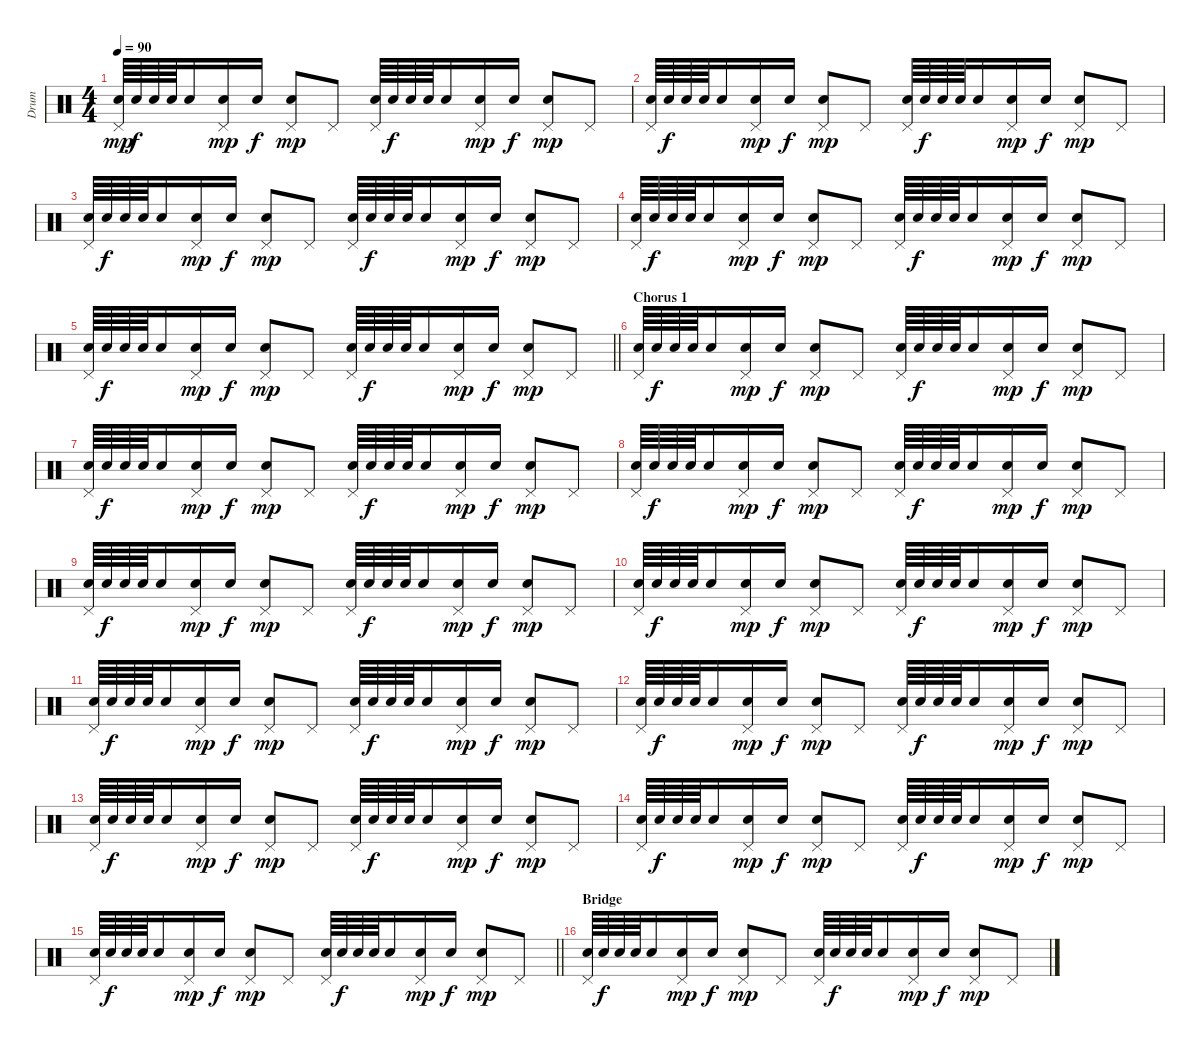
\track ("Drum" "Drum") {instrument percussion}
\staff {score}
\articulation defaults
\ts (4 4)
\tempo 90
\clef neutral
\ks c
("Snare (hit) 2" "Pedal Hi-Hat (hit)").64{dy mp} "Snare (hit) 2".64{dy f} "Snare (hit) 2".64 "Snare (hit) 2".64 "Snare (hit) 2".16 ("Snare (hit) 2" "Pedal Hi-Hat (hit)").16{dy mp} "Snare (hit) 2".16{dy f} ("Snare (hit) 2" "Pedal Hi-Hat (hit)").8{dy mp} "Pedal Hi-Hat (hit)".8 ("Snare (hit) 2" "Pedal Hi-Hat (hit)").64 "Snare (hit) 2".64{dy f} "Snare (hit) 2".64 "Snare (hit) 2".64 "Snare (hit) 2".16 ("Snare (hit) 2" "Pedal Hi-Hat (hit)").16{dy mp} "Snare (hit) 2".16{dy f} ("Snare (hit) 2" "Pedal Hi-Hat (hit)").8{dy mp} "Pedal Hi-Hat (hit)".8 |
("Snare (hit) 2" "Pedal Hi-Hat (hit)").64 "Snare (hit) 2".64{dy f} "Snare (hit) 2".64 "Snare (hit) 2".64 "Snare (hit) 2".16 ("Snare (hit) 2" "Pedal Hi-Hat (hit)").16{dy mp} "Snare (hit) 2".16{dy f} ("Snare (hit) 2" "Pedal Hi-Hat (hit)").8{dy mp} "Pedal Hi-Hat (hit)".8 ("Snare (hit) 2" "Pedal Hi-Hat (hit)").64 "Snare (hit) 2".64{dy f} "Snare (hit) 2".64 "Snare (hit) 2".64 "Snare (hit) 2".16 ("Snare (hit) 2" "Pedal Hi-Hat (hit)").16{dy mp} "Snare (hit) 2".16{dy f} ("Snare (hit) 2" "Pedal Hi-Hat (hit)").8{dy mp} "Pedal Hi-Hat (hit)".8 |
("Snare (hit) 2" "Pedal Hi-Hat (hit)").64 "Snare (hit) 2".64{dy f} "Snare (hit) 2".64 "Snare (hit) 2".64 "Snare (hit) 2".16 ("Snare (hit) 2" "Pedal Hi-Hat (hit)").16{dy mp} "Snare (hit) 2".16{dy f} ("Snare (hit) 2" "Pedal Hi-Hat (hit)").8{dy mp} "Pedal Hi-Hat (hit)".8 ("Snare (hit) 2" "Pedal Hi-Hat (hit)").64 "Snare (hit) 2".64{dy f} "Snare (hit) 2".64 "Snare (hit) 2".64 "Snare (hit) 2".16 ("Snare (hit) 2" "Pedal Hi-Hat (hit)").16{dy mp} "Snare (hit) 2".16{dy f} ("Snare (hit) 2" "Pedal Hi-Hat (hit)").8{dy mp} "Pedal Hi-Hat (hit)".8 |
("Snare (hit) 2" "Pedal Hi-Hat (hit)").64 "Snare (hit) 2".64{dy f} "Snare (hit) 2".64 "Snare (hit) 2".64 "Snare (hit) 2".16 ("Snare (hit) 2" "Pedal Hi-Hat (hit)").16{dy mp} "Snare (hit) 2".16{dy f} ("Snare (hit) 2" "Pedal Hi-Hat (hit)").8{dy mp} "Pedal Hi-Hat (hit)".8 ("Snare (hit) 2" "Pedal Hi-Hat (hit)").64 "Snare (hit) 2".64{dy f} "Snare (hit) 2".64 "Snare (hit) 2".64 "Snare (hit) 2".16 ("Snare (hit) 2" "Pedal Hi-Hat (hit)").16{dy mp} "Snare (hit) 2".16{dy f} ("Snare (hit) 2" "Pedal Hi-Hat (hit)").8{dy mp} "Pedal Hi-Hat (hit)".8 |
\barLineRight lightlight
("Snare (hit) 2" "Pedal Hi-Hat (hit)").64 "Snare (hit) 2".64{dy f} "Snare (hit) 2".64 "Snare (hit) 2".64 "Snare (hit) 2".16 ("Snare (hit) 2" "Pedal Hi-Hat (hit)").16{dy mp} "Snare (hit) 2".16{dy f} ("Snare (hit) 2" "Pedal Hi-Hat (hit)").8{dy mp} "Pedal Hi-Hat (hit)".8 ("Snare (hit) 2" "Pedal Hi-Hat (hit)").64 "Snare (hit) 2".64{dy f} "Snare (hit) 2".64 "Snare (hit) 2".64 "Snare (hit) 2".16 ("Snare (hit) 2" "Pedal Hi-Hat (hit)").16{dy mp} "Snare (hit) 2".16{dy f} ("Snare (hit) 2" "Pedal Hi-Hat (hit)").8{dy mp} "Pedal Hi-Hat (hit)".8 |
\section ("" "Chorus 1")
("Snare (hit) 2" "Pedal Hi-Hat (hit)").64 "Snare (hit) 2".64{dy f} "Snare (hit) 2".64 "Snare (hit) 2".64 "Snare (hit) 2".16 ("Snare (hit) 2" "Pedal Hi-Hat (hit)").16{dy mp} "Snare (hit) 2".16{dy f} ("Snare (hit) 2" "Pedal Hi-Hat (hit)").8{dy mp} "Pedal Hi-Hat (hit)".8 ("Snare (hit) 2" "Pedal Hi-Hat (hit)").64 "Snare (hit) 2".64{dy f} "Snare (hit) 2".64 "Snare (hit) 2".64 "Snare (hit) 2".16 ("Snare (hit) 2" "Pedal Hi-Hat (hit)").16{dy mp} "Snare (hit) 2".16{dy f} ("Snare (hit) 2" "Pedal Hi-Hat (hit)").8{dy mp} "Pedal Hi-Hat (hit)".8 |
("Snare (hit) 2" "Pedal Hi-Hat (hit)").64 "Snare (hit) 2".64{dy f} "Snare (hit) 2".64 "Snare (hit) 2".64 "Snare (hit) 2".16 ("Snare (hit) 2" "Pedal Hi-Hat (hit)").16{dy mp} "Snare (hit) 2".16{dy f} ("Snare (hit) 2" "Pedal Hi-Hat (hit)").8{dy mp} "Pedal Hi-Hat (hit)".8 ("Snare (hit) 2" "Pedal Hi-Hat (hit)").64 "Snare (hit) 2".64{dy f} "Snare (hit) 2".64 "Snare (hit) 2".64 "Snare (hit) 2".16 ("Snare (hit) 2" "Pedal Hi-Hat (hit)").16{dy mp} "Snare (hit) 2".16{dy f} ("Snare (hit) 2" "Pedal Hi-Hat (hit)").8{dy mp} "Pedal Hi-Hat (hit)".8 |
("Snare (hit) 2" "Pedal Hi-Hat (hit)").64 "Snare (hit) 2".64{dy f} "Snare (hit) 2".64 "Snare (hit) 2".64 "Snare (hit) 2".16 ("Snare (hit) 2" "Pedal Hi-Hat (hit)").16{dy mp} "Snare (hit) 2".16{dy f} ("Snare (hit) 2" "Pedal Hi-Hat (hit)").8{dy mp} "Pedal Hi-Hat (hit)".8 ("Snare (hit) 2" "Pedal Hi-Hat (hit)").64 "Snare (hit) 2".64{dy f} "Snare (hit) 2".64 "Snare (hit) 2".64 "Snare (hit) 2".16 ("Snare (hit) 2" "Pedal Hi-Hat (hit)").16{dy mp} "Snare (hit) 2".16{dy f} ("Snare (hit) 2" "Pedal Hi-Hat (hit)").8{dy mp} "Pedal Hi-Hat (hit)".8 |
("Snare (hit) 2" "Pedal Hi-Hat (hit)").64 "Snare (hit) 2".64{dy f} "Snare (hit) 2".64 "Snare (hit) 2".64 "Snare (hit) 2".16 ("Snare (hit) 2" "Pedal Hi-Hat (hit)").16{dy mp} "Snare (hit) 2".16{dy f} ("Snare (hit) 2" "Pedal Hi-Hat (hit)").8{dy mp} "Pedal Hi-Hat (hit)".8 ("Snare (hit) 2" "Pedal Hi-Hat (hit)").64 "Snare (hit) 2".64{dy f} "Snare (hit) 2".64 "Snare (hit) 2".64 "Snare (hit) 2".16 ("Snare (hit) 2" "Pedal Hi-Hat (hit)").16{dy mp} "Snare (hit) 2".16{dy f} ("Snare (hit) 2" "Pedal Hi-Hat (hit)").8{dy mp} "Pedal Hi-Hat (hit)".8 |
("Snare (hit) 2" "Pedal Hi-Hat (hit)").64 "Snare (hit) 2".64{dy f} "Snare (hit) 2".64 "Snare (hit) 2".64 "Snare (hit) 2".16 ("Snare (hit) 2" "Pedal Hi-Hat (hit)").16{dy mp} "Snare (hit) 2".16{dy f} ("Snare (hit) 2" "Pedal Hi-Hat (hit)").8{dy mp} "Pedal Hi-Hat (hit)".8 ("Snare (hit) 2" "Pedal Hi-Hat (hit)").64 "Snare (hit) 2".64{dy f} "Snare (hit) 2".64 "Snare (hit) 2".64 "Snare (hit) 2".16 ("Snare (hit) 2" "Pedal Hi-Hat (hit)").16{dy mp} "Snare (hit) 2".16{dy f} ("Snare (hit) 2" "Pedal Hi-Hat (hit)").8{dy mp} "Pedal Hi-Hat (hit)".8 |
("Snare (hit) 2" "Pedal Hi-Hat (hit)").64 "Snare (hit) 2".64{dy f} "Snare (hit) 2".64 "Snare (hit) 2".64 "Snare (hit) 2".16 ("Snare (hit) 2" "Pedal Hi-Hat (hit)").16{dy mp} "Snare (hit) 2".16{dy f} ("Snare (hit) 2" "Pedal Hi-Hat (hit)").8{dy mp} "Pedal Hi-Hat (hit)".8 ("Snare (hit) 2" "Pedal Hi-Hat (hit)").64 "Snare (hit) 2".64{dy f} "Snare (hit) 2".64 "Snare (hit) 2".64 "Snare (hit) 2".16 ("Snare (hit) 2" "Pedal Hi-Hat (hit)").16{dy mp} "Snare (hit) 2".16{dy f} ("Snare (hit) 2" "Pedal Hi-Hat (hit)").8{dy mp} "Pedal Hi-Hat (hit)".8 |
("Snare (hit) 2" "Pedal Hi-Hat (hit)").64 "Snare (hit) 2".64{dy f} "Snare (hit) 2".64 "Snare (hit) 2".64 "Snare (hit) 2".16 ("Snare (hit) 2" "Pedal Hi-Hat (hit)").16{dy mp} "Snare (hit) 2".16{dy f} ("Snare (hit) 2" "Pedal Hi-Hat (hit)").8{dy mp} "Pedal Hi-Hat (hit)".8 ("Snare (hit) 2" "Pedal Hi-Hat (hit)").64 "Snare (hit) 2".64{dy f} "Snare (hit) 2".64 "Snare (hit) 2".64 "Snare (hit) 2".16 ("Snare (hit) 2" "Pedal Hi-Hat (hit)").16{dy mp} "Snare (hit) 2".16{dy f} ("Snare (hit) 2" "Pedal Hi-Hat (hit)").8{dy mp} "Pedal Hi-Hat (hit)".8 |
("Snare (hit) 2" "Pedal Hi-Hat (hit)").64 "Snare (hit) 2".64{dy f} "Snare (hit) 2".64 "Snare (hit) 2".64 "Snare (hit) 2".16 ("Snare (hit) 2" "Pedal Hi-Hat (hit)").16{dy mp} "Snare (hit) 2".16{dy f} ("Snare (hit) 2" "Pedal Hi-Hat (hit)").8{dy mp} "Pedal Hi-Hat (hit)".8 ("Snare (hit) 2" "Pedal Hi-Hat (hit)").64 "Snare (hit) 2".64{dy f} "Snare (hit) 2".64 "Snare (hit) 2".64 "Snare (hit) 2".16 ("Snare (hit) 2" "Pedal Hi-Hat (hit)").16{dy mp} "Snare (hit) 2".16{dy f} ("Snare (hit) 2" "Pedal Hi-Hat (hit)").8{dy mp} "Pedal Hi-Hat (hit)".8 |
("Snare (hit) 2" "Pedal Hi-Hat (hit)").64 "Snare (hit) 2".64{dy f} "Snare (hit) 2".64 "Snare (hit) 2".64 "Snare (hit) 2".16 ("Snare (hit) 2" "Pedal Hi-Hat (hit)").16{dy mp} "Snare (hit) 2".16{dy f} ("Snare (hit) 2" "Pedal Hi-Hat (hit)").8{dy mp} "Pedal Hi-Hat (hit)".8 ("Snare (hit) 2" "Pedal Hi-Hat (hit)").64 "Snare (hit) 2".64{dy f} "Snare (hit) 2".64 "Snare (hit) 2".64 "Snare (hit) 2".16 ("Snare (hit) 2" "Pedal Hi-Hat (hit)").16{dy mp} "Snare (hit) 2".16{dy f} ("Snare (hit) 2" "Pedal Hi-Hat (hit)").8{dy mp} "Pedal Hi-Hat (hit)".8 |
\barLineRight lightlight
("Snare (hit) 2" "Pedal Hi-Hat (hit)").64 "Snare (hit) 2".64{dy f} "Snare (hit) 2".64 "Snare (hit) 2".64 "Snare (hit) 2".16 ("Snare (hit) 2" "Pedal Hi-Hat (hit)").16{dy mp} "Snare (hit) 2".16{dy f} ("Snare (hit) 2" "Pedal Hi-Hat (hit)").8{dy mp} "Pedal Hi-Hat (hit)".8 ("Snare (hit) 2" "Pedal Hi-Hat (hit)").64 "Snare (hit) 2".64{dy f} "Snare (hit) 2".64 "Snare (hit) 2".64 "Snare (hit) 2".16 ("Snare (hit) 2" "Pedal Hi-Hat (hit)").16{dy mp} "Snare (hit) 2".16{dy f} ("Snare (hit) 2" "Pedal Hi-Hat (hit)").8{dy mp} "Pedal Hi-Hat (hit)".8 |
\section ("" "Bridge")
("Snare (hit) 2" "Pedal Hi-Hat (hit)").64 "Snare (hit) 2".64{dy f} "Snare (hit) 2".64 "Snare (hit) 2".64 "Snare (hit) 2".16 ("Snare (hit) 2" "Pedal Hi-Hat (hit)").16{dy mp} "Snare (hit) 2".16{dy f} ("Snare (hit) 2" "Pedal Hi-Hat (hit)").8{dy mp} "Pedal Hi-Hat (hit)".8 ("Snare (hit) 2" "Pedal Hi-Hat (hit)").64 "Snare (hit) 2".64{dy f} "Snare (hit) 2".64 "Snare (hit) 2".64 "Snare (hit) 2".16 ("Snare (hit) 2" "Pedal Hi-Hat (hit)").16{dy mp} "Snare (hit) 2".16{dy f} ("Snare (hit) 2" "Pedal Hi-Hat (hit)").8{dy mp} "Pedal Hi-Hat (hit)".8
